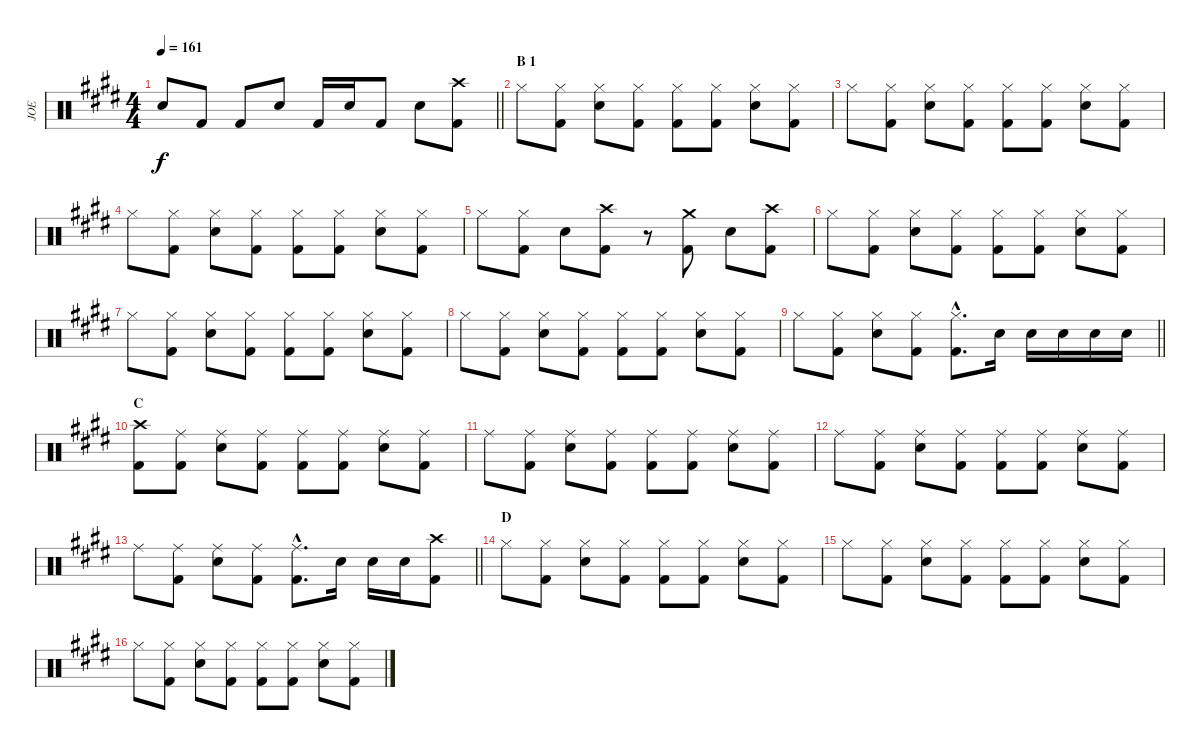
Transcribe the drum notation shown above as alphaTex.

\track ("JOE" "JOE") {instrument percussion}
\staff {score}
\articulation defaults
\ts (4 4)
\tempo 161
\clef neutral
\barLineRight lightlight
\ks e "Snare (hit) 2".8{dy f volume 10} "Kick (hit) 2".8 "Kick (hit) 2".8 "Snare (hit) 2".8 "Kick (hit) 2".16 "Snare (hit) 2".16 "Kick (hit) 2".8 "Snare (hit) 2".8
("Crash high (hit)" "Kick (hit) 2").8 |
\section ("" "B 1")
"Hi-Hat (closed)".8 ("Hi-Hat (closed)" "Kick (hit) 2").8 ("Hi-Hat (closed)" "Snare (hit) 2").8 ("Hi-Hat (closed)" "Kick (hit) 2").8 ("Hi-Hat (closed)" "Kick (hit) 2").8 ("Hi-Hat (closed)" "Kick (hit) 2").8 ("Hi-Hat (closed)" "Snare (hit) 2").8 ("Hi-Hat (closed)" "Kick (hit) 2").8 |
"Hi-Hat (closed)".8 ("Hi-Hat (closed)" "Kick (hit) 2").8 ("Hi-Hat (closed)" "Snare (hit) 2").8 ("Hi-Hat (closed)" "Kick (hit) 2").8 ("Hi-Hat (closed)" "Kick (hit) 2").8 ("Hi-Hat (closed)" "Kick (hit) 2").8 ("Hi-Hat (closed)" "Snare (hit) 2").8 ("Hi-Hat (closed)" "Kick (hit) 2").8 |
"Hi-Hat (closed)".8 ("Hi-Hat (closed)" "Kick (hit) 2").8 ("Hi-Hat (closed)" "Snare (hit) 2").8 ("Hi-Hat (closed)" "Kick (hit) 2").8 ("Hi-Hat (closed)" "Kick (hit) 2").8 ("Hi-Hat (closed)" "Kick (hit) 2").8 ("Hi-Hat (closed)" "Snare (hit) 2").8 ("Hi-Hat (closed)" "Kick (hit) 2").8 |
"Hi-Hat (closed)".8 ("Hi-Hat (closed)" "Kick (hit) 2").8 "Snare (hit) 2".8 ("Crash high (hit)" "Kick (hit) 2").8 r.8 ("Crash medium (hit)" "Kick (hit) 2").8 "Snare (hit) 2".8 ("Crash high (hit)" "Kick (hit) 2").8 |
"Hi-Hat (closed)".8 ("Hi-Hat (closed)" "Kick (hit) 2").8 ("Hi-Hat (closed)" "Snare (hit) 2").8 ("Hi-Hat (closed)" "Kick (hit) 2").8 ("Hi-Hat (closed)" "Kick (hit) 2").8 ("Hi-Hat (closed)" "Kick (hit) 2").8 ("Hi-Hat (closed)" "Snare (hit) 2").8 ("Hi-Hat (closed)" "Kick (hit) 2").8 |
"Hi-Hat (closed)".8 ("Hi-Hat (closed)" "Kick (hit) 2").8 ("Hi-Hat (closed)" "Snare (hit) 2").8 ("Hi-Hat (closed)" "Kick (hit) 2").8 ("Hi-Hat (closed)" "Kick (hit) 2").8 ("Hi-Hat (closed)" "Kick (hit) 2").8 ("Hi-Hat (closed)" "Snare (hit) 2").8 ("Hi-Hat (closed)" "Kick (hit) 2").8 |
"Hi-Hat (closed)".8 ("Hi-Hat (closed)" "Kick (hit) 2").8 ("Hi-Hat (closed)" "Snare (hit) 2").8 ("Hi-Hat (closed)" "Kick (hit) 2").8 ("Hi-Hat (closed)" "Kick (hit) 2").8 ("Hi-Hat (closed)" "Kick (hit) 2").8 ("Hi-Hat (closed)" "Snare (hit) 2").8 ("Hi-Hat (closed)" "Kick (hit) 2").8 |
\barLineRight lightlight "Hi-Hat (closed)".8
("Hi-Hat (closed)" "Kick (hit) 2").8 ("Hi-Hat (closed)" "Snare (hit) 2").8 ("Hi-Hat (closed)" "Kick (hit) 2").8 ("Hi-Hat (closed)"{hac} "Kick (hit) 2"{hac}).8{d} "Snare (hit) 2".16 "Snare (hit) 2".16 "Snare (hit) 2".16 "Snare (hit) 2".16 "Snare (hit) 2".16 |
\section ("" "C")
("Crash high (hit)" "Kick (hit) 2").8 ("Ride (middle)" "Kick (hit) 2").8 ("Ride (middle)" "Snare (hit) 2").8 ("Ride (middle)" "Kick (hit) 2").8 ("Ride (middle)" "Kick (hit) 2").8 ("Ride (middle)" "Kick (hit) 2").8 ("Ride (middle)" "Snare (hit) 2").8 ("Ride (middle)" "Kick (hit) 2").8 |
"Ride (middle)".8 ("Ride (middle)" "Kick (hit) 2").8 ("Ride (middle)" "Snare (hit) 2").8 ("Ride (middle)" "Kick (hit) 2").8 ("Ride (middle)" "Kick (hit) 2").8 ("Ride (middle)" "Kick (hit) 2").8 ("Ride (middle)" "Snare (hit) 2").8 ("Ride (middle)" "Kick (hit) 2").8 |
"Ride (middle)".8 ("Ride (middle)" "Kick (hit) 2").8 ("Ride (middle)" "Snare (hit) 2").8 ("Ride (middle)" "Kick (hit) 2").8 ("Ride (middle)" "Kick (hit) 2").8 ("Ride (middle)" "Kick (hit) 2").8 ("Ride (middle)" "Snare (hit) 2").8 ("Ride (middle)" "Kick (hit) 2").8 |
\barLineRight lightlight "Ride (middle)".8
("Ride (middle)" "Kick (hit) 2").8 ("Ride (middle)" "Snare (hit) 2").8 ("Ride (middle)" "Kick (hit) 2").8 ("Ride (middle)"{hac} "Kick (hit) 2"{hac}).8{d} "Snare (hit) 2".16 "Snare (hit) 2".16 "Snare (hit) 2".16 ("Crash high (hit)" "Kick (hit) 2").8 |
\section ("" "D")
"Hi-Hat (closed)".8 ("Hi-Hat (closed)" "Kick (hit) 2").8 ("Hi-Hat (closed)" "Snare (hit) 2").8 ("Hi-Hat (closed)" "Kick (hit) 2").8 ("Hi-Hat (closed)" "Kick (hit) 2").8 ("Hi-Hat (closed)" "Kick (hit) 2").8 ("Hi-Hat (closed)" "Snare (hit) 2").8 ("Hi-Hat (closed)" "Kick (hit) 2").8 |
"Hi-Hat (closed)".8 ("Hi-Hat (closed)" "Kick (hit) 2").8 ("Hi-Hat (closed)" "Snare (hit) 2").8 ("Hi-Hat (closed)" "Kick (hit) 2").8 ("Hi-Hat (closed)" "Kick (hit) 2").8 ("Hi-Hat (closed)" "Kick (hit) 2").8 ("Hi-Hat (closed)" "Snare (hit) 2").8 ("Hi-Hat (closed)" "Kick (hit) 2").8 |
"Hi-Hat (closed)".8 ("Hi-Hat (closed)" "Kick (hit) 2").8 ("Hi-Hat (closed)" "Snare (hit) 2").8 ("Hi-Hat (closed)" "Kick (hit) 2").8 ("Hi-Hat (closed)" "Kick (hit) 2").8 ("Hi-Hat (closed)" "Kick (hit) 2").8 ("Hi-Hat (closed)" "Snare (hit) 2").8 ("Hi-Hat (closed)" "Kick (hit) 2").8
